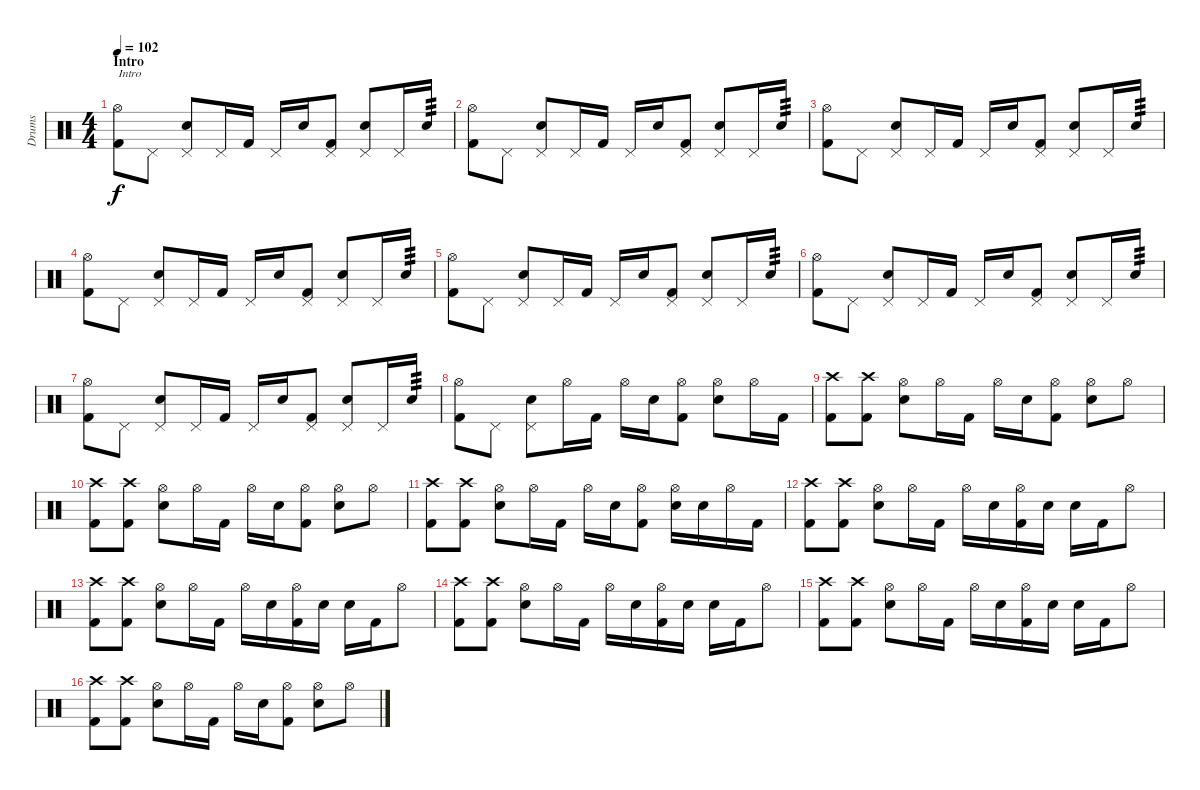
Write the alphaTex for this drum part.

\track ("Drums" "Drums") {instrument percussion}
\staff {score}
\articulation defaults
\ts (4 4)
\section ("" "Intro")
\tempo 102
\clef neutral
\ks c
("Hi-Hat (open)" "Kick (hit) 2").8{txt "Intro" dy f balance 3} "Pedal Hi-Hat (hit)".8 ("Pedal Hi-Hat (hit)" "Electric Snare (hit)").8 "Pedal Hi-Hat (hit)".16 "Kick (hit) 2".16 "Pedal Hi-Hat (hit)".16 "Electric Snare (hit)".16 ("Pedal Hi-Hat (hit)" "Kick (hit) 2").8 ("Pedal Hi-Hat (hit)" "Electric Snare (hit)").8 "Pedal Hi-Hat (hit)".16 "Electric Snare (hit)".16{tp 3} |
("Hi-Hat (open)" "Kick (hit) 2").8 "Pedal Hi-Hat (hit)".8 ("Pedal Hi-Hat (hit)" "Electric Snare (hit)").8 "Pedal Hi-Hat (hit)".16 "Kick (hit) 2".16 "Pedal Hi-Hat (hit)".16 "Electric Snare (hit)".16 ("Pedal Hi-Hat (hit)" "Kick (hit) 2").8 ("Pedal Hi-Hat (hit)" "Electric Snare (hit)").8 "Pedal Hi-Hat (hit)".16 "Electric Snare (hit)".16{tp 3} |
("Hi-Hat (open)" "Kick (hit) 2").8 "Pedal Hi-Hat (hit)".8 ("Pedal Hi-Hat (hit)" "Electric Snare (hit)").8 "Pedal Hi-Hat (hit)".16 "Kick (hit) 2".16 "Pedal Hi-Hat (hit)".16 "Electric Snare (hit)".16 ("Pedal Hi-Hat (hit)" "Kick (hit) 2").8 ("Pedal Hi-Hat (hit)" "Electric Snare (hit)").8 "Pedal Hi-Hat (hit)".16 "Electric Snare (hit)".16{tp 3} |
("Hi-Hat (open)" "Kick (hit) 2").8 "Pedal Hi-Hat (hit)".8 ("Pedal Hi-Hat (hit)" "Electric Snare (hit)").8 "Pedal Hi-Hat (hit)".16 "Kick (hit) 2".16 "Pedal Hi-Hat (hit)".16 "Electric Snare (hit)".16 ("Pedal Hi-Hat (hit)" "Kick (hit) 2").8 ("Pedal Hi-Hat (hit)" "Electric Snare (hit)").8 "Pedal Hi-Hat (hit)".16 "Electric Snare (hit)".16{tp 3} |
("Hi-Hat (open)" "Kick (hit) 2").8 "Pedal Hi-Hat (hit)".8 ("Pedal Hi-Hat (hit)" "Electric Snare (hit)").8 "Pedal Hi-Hat (hit)".16 "Kick (hit) 2".16 "Pedal Hi-Hat (hit)".16 "Electric Snare (hit)".16 ("Pedal Hi-Hat (hit)" "Kick (hit) 2").8 ("Pedal Hi-Hat (hit)" "Electric Snare (hit)").8 "Pedal Hi-Hat (hit)".16 "Electric Snare (hit)".16{tp 3} |
("Hi-Hat (open)" "Kick (hit) 2").8 "Pedal Hi-Hat (hit)".8 ("Pedal Hi-Hat (hit)" "Electric Snare (hit)").8 "Pedal Hi-Hat (hit)".16 "Kick (hit) 2".16 "Pedal Hi-Hat (hit)".16 "Electric Snare (hit)".16 ("Pedal Hi-Hat (hit)" "Kick (hit) 2").8 ("Pedal Hi-Hat (hit)" "Electric Snare (hit)").8 "Pedal Hi-Hat (hit)".16 "Electric Snare (hit)".16{tp 3} |
("Hi-Hat (open)" "Kick (hit) 2").8 "Pedal Hi-Hat (hit)".8 ("Pedal Hi-Hat (hit)" "Electric Snare (hit)").8 "Pedal Hi-Hat (hit)".16 "Kick (hit) 2".16 "Pedal Hi-Hat (hit)".16 "Electric Snare (hit)".16 ("Pedal Hi-Hat (hit)" "Kick (hit) 2").8 ("Pedal Hi-Hat (hit)" "Electric Snare (hit)").8 "Pedal Hi-Hat (hit)".16 "Electric Snare (hit)".16{tp 3} |
("Hi-Hat (open)" "Kick (hit) 2").8 "Pedal Hi-Hat (hit)".8 ("Pedal Hi-Hat (hit)" "Electric Snare (hit)").8 "Hi-Hat (open)".16 "Kick (hit) 2".16 "Hi-Hat (open)".16 "Electric Snare (hit)".16 ("Hi-Hat (open)" "Kick (hit) 2").8 ("Hi-Hat (open)" "Electric Snare (hit)").8 "Hi-Hat (open)".16 "Kick (hit) 2".16 |
("Crash high (hit)" "Kick (hit) 2").8{balance 8} ("Crash high (hit)" "Kick (hit) 2").8 ("Hi-Hat (open)" "Electric Snare (hit)").8 "Hi-Hat (open)".16 "Kick (hit) 2".16 "Hi-Hat (open)".16 "Electric Snare (hit)".16 ("Hi-Hat (open)" "Kick (hit) 2").8 ("Hi-Hat (open)" "Electric Snare (hit)").8 "Hi-Hat (open)".8 |
("Crash high (hit)" "Kick (hit) 2").8 ("Crash high (hit)" "Kick (hit) 2").8 ("Hi-Hat (open)" "Electric Snare (hit)").8 "Hi-Hat (open)".16 "Kick (hit) 2".16 "Hi-Hat (open)".16 "Electric Snare (hit)".16 ("Hi-Hat (open)" "Kick (hit) 2").8 ("Hi-Hat (open)" "Electric Snare (hit)").8 "Hi-Hat (open)".8 |
("Crash high (hit)" "Kick (hit) 2").8 ("Crash high (hit)" "Kick (hit) 2").8 ("Hi-Hat (open)" "Electric Snare (hit)").8 "Hi-Hat (open)".16 "Kick (hit) 2".16 "Hi-Hat (open)".16 "Electric Snare (hit)".16 ("Hi-Hat (open)" "Kick (hit) 2").8 ("Hi-Hat (open)" "Electric Snare (hit)").16 "Electric Snare (hit)".16 "Hi-Hat (open)".16 "Kick (hit) 2".16 |
("Crash high (hit)" "Kick (hit) 2").8 ("Crash high (hit)" "Kick (hit) 2").8 ("Hi-Hat (open)" "Electric Snare (hit)").8 "Hi-Hat (open)".16 "Kick (hit) 2".16 "Hi-Hat (open)".16 "Electric Snare (hit)".16 ("Hi-Hat (open)" "Kick (hit) 2").16 "Electric Snare (hit)".16 "Electric Snare (hit)".16 "Kick (hit) 2".16 "Hi-Hat (open)".8 |
("Crash high (hit)" "Kick (hit) 2").8 ("Crash high (hit)" "Kick (hit) 2").8 ("Hi-Hat (open)" "Electric Snare (hit)").8 "Hi-Hat (open)".16 "Kick (hit) 2".16 "Hi-Hat (open)".16 "Electric Snare (hit)".16 ("Hi-Hat (open)" "Kick (hit) 2").16 "Electric Snare (hit)".16 "Electric Snare (hit)".16 "Kick (hit) 2".16 "Hi-Hat (open)".8 |
("Crash high (hit)" "Kick (hit) 2").8 ("Crash high (hit)" "Kick (hit) 2").8 ("Hi-Hat (open)" "Electric Snare (hit)").8 "Hi-Hat (open)".16 "Kick (hit) 2".16 "Hi-Hat (open)".16 "Electric Snare (hit)".16 ("Hi-Hat (open)" "Kick (hit) 2").16 "Electric Snare (hit)".16 "Electric Snare (hit)".16 "Kick (hit) 2".16 "Hi-Hat (open)".8 |
("Crash high (hit)" "Kick (hit) 2").8 ("Crash high (hit)" "Kick (hit) 2").8 ("Hi-Hat (open)" "Electric Snare (hit)").8 "Hi-Hat (open)".16 "Kick (hit) 2".16 "Hi-Hat (open)".16 "Electric Snare (hit)".16 ("Hi-Hat (open)" "Kick (hit) 2").16 "Electric Snare (hit)".16 "Electric Snare (hit)".16 "Kick (hit) 2".16 "Hi-Hat (open)".8 |
("Crash high (hit)" "Kick (hit) 2").8 ("Crash high (hit)" "Kick (hit) 2").8 ("Hi-Hat (open)" "Electric Snare (hit)").8 "Hi-Hat (open)".16 "Kick (hit) 2".16 "Hi-Hat (open)".16 "Electric Snare (hit)".16 ("Hi-Hat (open)" "Kick (hit) 2").8 ("Hi-Hat (open)" "Electric Snare (hit)").8 "Hi-Hat (open)".8
